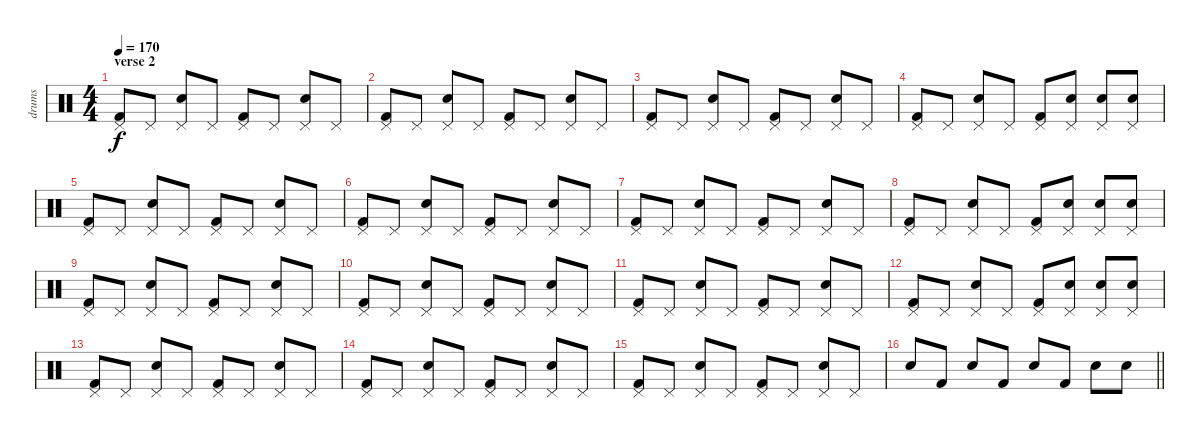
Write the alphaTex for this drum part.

\track ("drums" "drums") {instrument percussion}
\staff {score}
\articulation defaults
\ts (4 4)
\section ("" "verse 2")
\tempo 170
\clef neutral
\ks c
("Kick (hit) 2" "Pedal Hi-Hat (hit)").8{dy f} "Pedal Hi-Hat (hit)".8 ("Electric Snare (hit)" "Pedal Hi-Hat (hit)").8 "Pedal Hi-Hat (hit)".8 ("Kick (hit) 2" "Pedal Hi-Hat (hit)").8 "Pedal Hi-Hat (hit)".8 ("Electric Snare (hit)" "Pedal Hi-Hat (hit)").8 "Pedal Hi-Hat (hit)".8 |
("Kick (hit) 2" "Pedal Hi-Hat (hit)").8 "Pedal Hi-Hat (hit)".8 ("Electric Snare (hit)" "Pedal Hi-Hat (hit)").8 "Pedal Hi-Hat (hit)".8 ("Kick (hit) 2" "Pedal Hi-Hat (hit)").8 "Pedal Hi-Hat (hit)".8 ("Electric Snare (hit)" "Pedal Hi-Hat (hit)").8 "Pedal Hi-Hat (hit)".8 |
("Kick (hit) 2" "Pedal Hi-Hat (hit)").8 "Pedal Hi-Hat (hit)".8 ("Electric Snare (hit)" "Pedal Hi-Hat (hit)").8 "Pedal Hi-Hat (hit)".8 ("Kick (hit) 2" "Pedal Hi-Hat (hit)").8 "Pedal Hi-Hat (hit)".8 ("Electric Snare (hit)" "Pedal Hi-Hat (hit)").8 "Pedal Hi-Hat (hit)".8 |
("Kick (hit) 2" "Pedal Hi-Hat (hit)").8 "Pedal Hi-Hat (hit)".8 ("Electric Snare (hit)" "Pedal Hi-Hat (hit)").8 "Pedal Hi-Hat (hit)".8 ("Kick (hit) 2" "Pedal Hi-Hat (hit)").8 ("Electric Snare (hit)" "Pedal Hi-Hat (hit)").8 ("Electric Snare (hit)" "Pedal Hi-Hat (hit)").8 ("Electric Snare (hit)" "Pedal Hi-Hat (hit)").8 |
("Kick (hit) 2" "Pedal Hi-Hat (hit)").8 "Pedal Hi-Hat (hit)".8 ("Electric Snare (hit)" "Pedal Hi-Hat (hit)").8 "Pedal Hi-Hat (hit)".8 ("Kick (hit) 2" "Pedal Hi-Hat (hit)").8 "Pedal Hi-Hat (hit)".8 ("Electric Snare (hit)" "Pedal Hi-Hat (hit)").8 "Pedal Hi-Hat (hit)".8 |
("Kick (hit) 2" "Pedal Hi-Hat (hit)").8 "Pedal Hi-Hat (hit)".8 ("Electric Snare (hit)" "Pedal Hi-Hat (hit)").8 "Pedal Hi-Hat (hit)".8 ("Kick (hit) 2" "Pedal Hi-Hat (hit)").8 "Pedal Hi-Hat (hit)".8 ("Electric Snare (hit)" "Pedal Hi-Hat (hit)").8 "Pedal Hi-Hat (hit)".8 |
("Kick (hit) 2" "Pedal Hi-Hat (hit)").8 "Pedal Hi-Hat (hit)".8 ("Electric Snare (hit)" "Pedal Hi-Hat (hit)").8 "Pedal Hi-Hat (hit)".8 ("Kick (hit) 2" "Pedal Hi-Hat (hit)").8 "Pedal Hi-Hat (hit)".8 ("Electric Snare (hit)" "Pedal Hi-Hat (hit)").8 "Pedal Hi-Hat (hit)".8 |
("Kick (hit) 2" "Pedal Hi-Hat (hit)").8 "Pedal Hi-Hat (hit)".8 ("Electric Snare (hit)" "Pedal Hi-Hat (hit)").8 "Pedal Hi-Hat (hit)".8 ("Kick (hit) 2" "Pedal Hi-Hat (hit)").8 ("Electric Snare (hit)" "Pedal Hi-Hat (hit)").8 ("Electric Snare (hit)" "Pedal Hi-Hat (hit)").8 ("Electric Snare (hit)" "Pedal Hi-Hat (hit)").8 |
("Kick (hit) 2" "Pedal Hi-Hat (hit)").8 "Pedal Hi-Hat (hit)".8 ("Electric Snare (hit)" "Pedal Hi-Hat (hit)").8 "Pedal Hi-Hat (hit)".8 ("Kick (hit) 2" "Pedal Hi-Hat (hit)").8 "Pedal Hi-Hat (hit)".8 ("Electric Snare (hit)" "Pedal Hi-Hat (hit)").8 "Pedal Hi-Hat (hit)".8 |
("Kick (hit) 2" "Pedal Hi-Hat (hit)").8 "Pedal Hi-Hat (hit)".8 ("Electric Snare (hit)" "Pedal Hi-Hat (hit)").8 "Pedal Hi-Hat (hit)".8 ("Kick (hit) 2" "Pedal Hi-Hat (hit)").8 "Pedal Hi-Hat (hit)".8 ("Electric Snare (hit)" "Pedal Hi-Hat (hit)").8 "Pedal Hi-Hat (hit)".8 |
("Kick (hit) 2" "Pedal Hi-Hat (hit)").8 "Pedal Hi-Hat (hit)".8 ("Electric Snare (hit)" "Pedal Hi-Hat (hit)").8 "Pedal Hi-Hat (hit)".8 ("Kick (hit) 2" "Pedal Hi-Hat (hit)").8 "Pedal Hi-Hat (hit)".8 ("Electric Snare (hit)" "Pedal Hi-Hat (hit)").8 "Pedal Hi-Hat (hit)".8 |
("Kick (hit) 2" "Pedal Hi-Hat (hit)").8 "Pedal Hi-Hat (hit)".8 ("Electric Snare (hit)" "Pedal Hi-Hat (hit)").8 "Pedal Hi-Hat (hit)".8 ("Kick (hit) 2" "Pedal Hi-Hat (hit)").8 ("Electric Snare (hit)" "Pedal Hi-Hat (hit)").8 ("Electric Snare (hit)" "Pedal Hi-Hat (hit)").8 ("Electric Snare (hit)" "Pedal Hi-Hat (hit)").8 |
("Kick (hit) 2" "Pedal Hi-Hat (hit)").8 "Pedal Hi-Hat (hit)".8 ("Electric Snare (hit)" "Pedal Hi-Hat (hit)").8 "Pedal Hi-Hat (hit)".8 ("Kick (hit) 2" "Pedal Hi-Hat (hit)").8 "Pedal Hi-Hat (hit)".8 ("Electric Snare (hit)" "Pedal Hi-Hat (hit)").8 "Pedal Hi-Hat (hit)".8 |
("Kick (hit) 2" "Pedal Hi-Hat (hit)").8 "Pedal Hi-Hat (hit)".8 ("Electric Snare (hit)" "Pedal Hi-Hat (hit)").8 "Pedal Hi-Hat (hit)".8 ("Kick (hit) 2" "Pedal Hi-Hat (hit)").8 "Pedal Hi-Hat (hit)".8 ("Electric Snare (hit)" "Pedal Hi-Hat (hit)").8 "Pedal Hi-Hat (hit)".8 |
("Kick (hit) 2" "Pedal Hi-Hat (hit)").8 "Pedal Hi-Hat (hit)".8 ("Electric Snare (hit)" "Pedal Hi-Hat (hit)").8 "Pedal Hi-Hat (hit)".8 ("Kick (hit) 2" "Pedal Hi-Hat (hit)").8 "Pedal Hi-Hat (hit)".8 ("Electric Snare (hit)" "Pedal Hi-Hat (hit)").8 "Pedal Hi-Hat (hit)".8 |
\barLineRight lightlight "Electric Snare (hit)".8 "Kick (hit) 2".8 "Electric Snare (hit)".8 "Kick (hit) 2".8 "Electric Snare (hit)".8 "Kick (hit) 2".8 "Electric Snare (hit)".8 "Electric Snare (hit)".8
